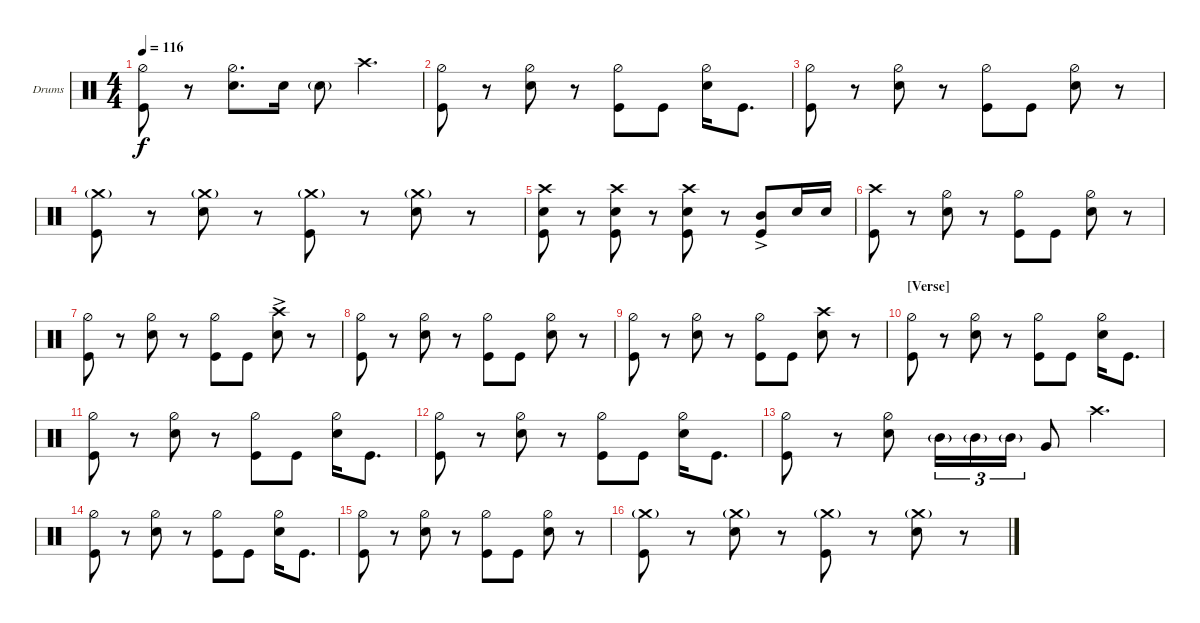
\bracketExtendMode nobrackets
\firstSystemTrackNameOrientation horizontal
\otherSystemsTrackNameOrientation horizontal
\track ("Drumkit" "Drums") {instrument percussion}
\staff {score}
\articulation defaults
\ts (4 4)
\tempo 116
\clef neutral
\ks c
("Hi-Hat (half)" "Kick (hit)").8{dy f} r.8 ("Snare (hit) 2" "Hi-Hat (half)").8{d} "Snare (hit) 2".16 "Snare (hit) 2"{g}.8 "Crash high (hit)".4{d} |
("Hi-Hat (half)" "Kick (hit)").8 r.8 ("Snare (hit) 2" "Hi-Hat (half)").8 r.8 ("Hi-Hat (half)" "Kick (hit)").8 "Kick (hit)".8 ("Hi-Hat (half)" "Snare (hit) 2").16 "Kick (hit)".8{d} |
("Hi-Hat (half)" "Kick (hit)").8 r.8 ("Snare (hit) 2" "Hi-Hat (half)").8 r.8 ("Hi-Hat (half)" "Kick (hit)").8 "Kick (hit)".8 ("Hi-Hat (half)" "Snare (hit) 2").8 r.8 |
("Kick (hit)" "Crash medium (hit)"{g}).8 r.8 ("Snare (hit) 2" "Crash medium (hit)"{g}).8 r.8 ("Kick (hit)" "Crash medium (hit)"{g}).8 r.8 ("Snare (hit) 2" "Crash medium (hit)"{g}).8 r.8 |
("Snare (hit) 2" "Kick (hit)" "Crash high (hit)").8 r.8 ("Snare (hit) 2" "Kick (hit)" "Crash high (hit)").8 r.8 ("Snare (hit) 2" "Kick (hit)" "Crash high (hit)").8 r.8 ("Kick (hit)" "Mid Tom (hit)"{ac}).8 "Snare (hit) 2".16 "Snare (hit) 2".16 |
("Kick (hit)" "Crash high (hit)").8 r.8 ("Snare (hit) 2" "Hi-Hat (half)").8 r.8 ("Hi-Hat (half)" "Kick (hit)").8 "Kick (hit)".8 ("Hi-Hat (half)" "Snare (hit) 2").8 r.8 |
("Hi-Hat (half)" "Kick (hit)").8 r.8 ("Snare (hit) 2" "Hi-Hat (half)").8 r.8 ("Hi-Hat (half)" "Kick (hit)").8 "Kick (hit)".8 ("Snare (hit) 2" "Crash high (hit)"{ac}).8 r.8 |
("Hi-Hat (half)" "Kick (hit)").8 r.8 ("Snare (hit) 2" "Hi-Hat (half)").8 r.8 ("Hi-Hat (half)" "Kick (hit)").8 "Kick (hit)".8 ("Hi-Hat (half)" "Snare (hit) 2").8 r.8 |
("Hi-Hat (half)" "Kick (hit)").8 r.8 ("Snare (hit) 2" "Hi-Hat (half)").8 r.8 ("Hi-Hat (half)" "Kick (hit)").8 "Kick (hit)".8 ("Snare (hit) 2" "Crash high (hit)").8 r.8 |
\section ("" "[Verse]")
("Hi-Hat (half)" "Kick (hit)").8 r.8 ("Snare (hit) 2" "Hi-Hat (half)").8 r.8 ("Hi-Hat (half)" "Kick (hit)").8 "Kick (hit)".8 ("Hi-Hat (half)" "Snare (hit) 2").16 "Kick (hit)".8{d} |
("Hi-Hat (half)" "Kick (hit)").8 r.8 ("Snare (hit) 2" "Hi-Hat (half)").8 r.8 ("Hi-Hat (half)" "Kick (hit)").8 "Kick (hit)".8 ("Hi-Hat (half)" "Snare (hit) 2").16 "Kick (hit)".8{d} |
("Hi-Hat (half)" "Kick (hit)").8 r.8 ("Snare (hit) 2" "Hi-Hat (half)").8 r.8 ("Hi-Hat (half)" "Kick (hit)").8 "Kick (hit)".8 ("Hi-Hat (half)" "Snare (hit) 2").16 "Kick (hit)".8{d} |
("Hi-Hat (half)" "Kick (hit)").8 r.8 ("Snare (hit) 2" "Hi-Hat (half)").8 "Mid Tom (hit)"{g}.16{tu (3 2)} "Mid Tom (hit)"{g}.16{tu (3 2)} "Mid Tom (hit)"{g}.16{tu (3 2)} "Very Low Tom (hit)".8 "Crash high (hit)".4{d} |
("Hi-Hat (half)" "Kick (hit)").8 r.8 ("Snare (hit) 2" "Hi-Hat (half)").8 r.8 ("Hi-Hat (half)" "Kick (hit)").8 "Kick (hit)".8 ("Hi-Hat (half)" "Snare (hit) 2").16 "Kick (hit)".8{d} |
("Hi-Hat (half)" "Kick (hit)").8 r.8 ("Snare (hit) 2" "Hi-Hat (half)").8 r.8 ("Hi-Hat (half)" "Kick (hit)").8 "Kick (hit)".8 ("Hi-Hat (half)" "Snare (hit) 2").8 r.8 |
("Kick (hit)" "Crash medium (hit)"{g}).8 r.8 ("Snare (hit) 2" "Crash medium (hit)"{g}).8 r.8 ("Kick (hit)" "Crash medium (hit)"{g}).8 r.8 ("Snare (hit) 2" "Crash medium (hit)"{g}).8 r.8
